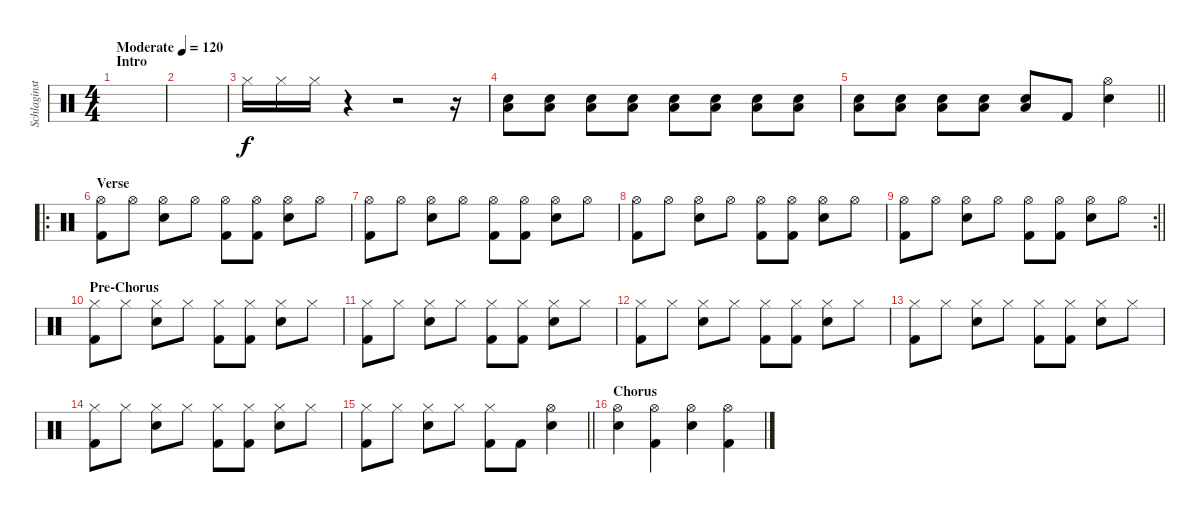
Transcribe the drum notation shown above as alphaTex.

\track ("Schlaginstrumente - Auswahl" "Schlaginst") {instrument percussion}
\staff {score}
\articulation defaults
\ts (4 4)
\section ("" "Intro")
\tempo (120 "Moderate")
\clef neutral
\ks c
|
|
"Hi-Hat (closed)".16 "Hi-Hat (closed)".16 "Hi-Hat (closed)".16 r.4 r.2 r.16 |
("Low Floor Tom (hit)" "Electric Snare (hit)").8 ("Low Floor Tom (hit)" "Electric Snare (hit)").8 ("Low Floor Tom (hit)" "Electric Snare (hit)").8 ("Low Floor Tom (hit)" "Electric Snare (hit)").8 ("Low Floor Tom (hit)" "Electric Snare (hit)").8 ("Low Floor Tom (hit)" "Electric Snare (hit)").8 ("Low Floor Tom (hit)" "Electric Snare (hit)").8 ("Low Floor Tom (hit)" "Electric Snare (hit)").8 |
\barLineRight lightlight
("Low Floor Tom (hit)" "Electric Snare (hit)").8 ("Low Floor Tom (hit)" "Electric Snare (hit)").8 ("Low Floor Tom (hit)" "Electric Snare (hit)").8 ("Low Floor Tom (hit)" "Electric Snare (hit)").8 ("Low Floor Tom (hit)" "Electric Snare (hit)").8 "Kick (hit) 2".8 ("Hi-Hat (open)" "Electric Snare (hit)").4 |
\ro
\section ("" "Verse")
("Hi-Hat (open)" "Kick (hit) 2").8 "Hi-Hat (open)".8 ("Hi-Hat (open)" "Electric Snare (hit)").8 "Hi-Hat (open)".8 ("Hi-Hat (open)" "Kick (hit) 2").8 ("Hi-Hat (open)" "Kick (hit) 2").8 ("Hi-Hat (open)" "Electric Snare (hit)").8 "Hi-Hat (open)".8 |
("Hi-Hat (open)" "Kick (hit) 2").8 "Hi-Hat (open)".8 ("Hi-Hat (open)" "Electric Snare (hit)").8 "Hi-Hat (open)".8 ("Hi-Hat (open)" "Kick (hit) 2").8 ("Hi-Hat (open)" "Kick (hit) 2").8 ("Hi-Hat (open)" "Electric Snare (hit)").8 "Hi-Hat (open)".8 |
("Hi-Hat (open)" "Kick (hit) 2").8 "Hi-Hat (open)".8 ("Hi-Hat (open)" "Electric Snare (hit)").8 "Hi-Hat (open)".8 ("Hi-Hat (open)" "Kick (hit) 2").8 ("Hi-Hat (open)" "Kick (hit) 2").8 ("Hi-Hat (open)" "Electric Snare (hit)").8 "Hi-Hat (open)".8 |
\rc 2
\barLineRight lightlight
("Hi-Hat (open)" "Kick (hit) 2").8 "Hi-Hat (open)".8 ("Hi-Hat (open)" "Electric Snare (hit)").8 "Hi-Hat (open)".8 ("Hi-Hat (open)" "Kick (hit) 2").8 ("Hi-Hat (open)" "Kick (hit) 2").8 ("Hi-Hat (open)" "Electric Snare (hit)").8 "Hi-Hat (open)".8 |
\section ("" "Pre-Chorus")
("Hi-Hat (closed)" "Kick (hit) 2").8 "Hi-Hat (closed)".8 ("Hi-Hat (closed)" "Electric Snare (hit)").8 "Hi-Hat (closed)".8 ("Hi-Hat (closed)" "Kick (hit) 2").8 ("Hi-Hat (closed)" "Kick (hit) 2").8 ("Hi-Hat (closed)" "Electric Snare (hit)").8 "Hi-Hat (closed)".8 |
("Hi-Hat (closed)" "Kick (hit) 2").8 "Hi-Hat (closed)".8 ("Hi-Hat (closed)" "Electric Snare (hit)").8 "Hi-Hat (closed)".8 ("Hi-Hat (closed)" "Kick (hit) 2").8 ("Hi-Hat (closed)" "Kick (hit) 2").8 ("Hi-Hat (closed)" "Electric Snare (hit)").8 "Hi-Hat (closed)".8 |
("Hi-Hat (closed)" "Kick (hit) 2").8 "Hi-Hat (closed)".8 ("Hi-Hat (closed)" "Electric Snare (hit)").8 "Hi-Hat (closed)".8 ("Hi-Hat (closed)" "Kick (hit) 2").8 ("Hi-Hat (closed)" "Kick (hit) 2").8 ("Hi-Hat (closed)" "Electric Snare (hit)").8 "Hi-Hat (closed)".8 |
("Hi-Hat (closed)" "Kick (hit) 2").8 "Hi-Hat (closed)".8 ("Hi-Hat (closed)" "Electric Snare (hit)").8 "Hi-Hat (closed)".8 ("Hi-Hat (closed)" "Kick (hit) 2").8 ("Hi-Hat (closed)" "Kick (hit) 2").8 ("Hi-Hat (closed)" "Electric Snare (hit)").8 "Hi-Hat (closed)".8 |
("Hi-Hat (closed)" "Kick (hit) 2").8 "Hi-Hat (closed)".8 ("Hi-Hat (closed)" "Electric Snare (hit)").8 "Hi-Hat (closed)".8 ("Hi-Hat (closed)" "Kick (hit) 2").8 ("Hi-Hat (closed)" "Kick (hit) 2").8 ("Hi-Hat (closed)" "Electric Snare (hit)").8 "Hi-Hat (closed)".8 |
\barLineRight lightlight
("Hi-Hat (closed)" "Kick (hit) 2").8 "Hi-Hat (closed)".8 ("Hi-Hat (closed)" "Electric Snare (hit)").8 "Hi-Hat (closed)".8 ("Hi-Hat (closed)" "Kick (hit) 2").8 "Kick (hit) 2".8 ("Hi-Hat (open)" "Electric Snare (hit)").4 |
\section ("" "Chorus")
("Hi-Hat (open)" "Electric Snare (hit)").4 ("Hi-Hat (open)" "Kick (hit) 2").4 ("Hi-Hat (open)" "Electric Snare (hit)").4 ("Hi-Hat (open)" "Kick (hit) 2").4
